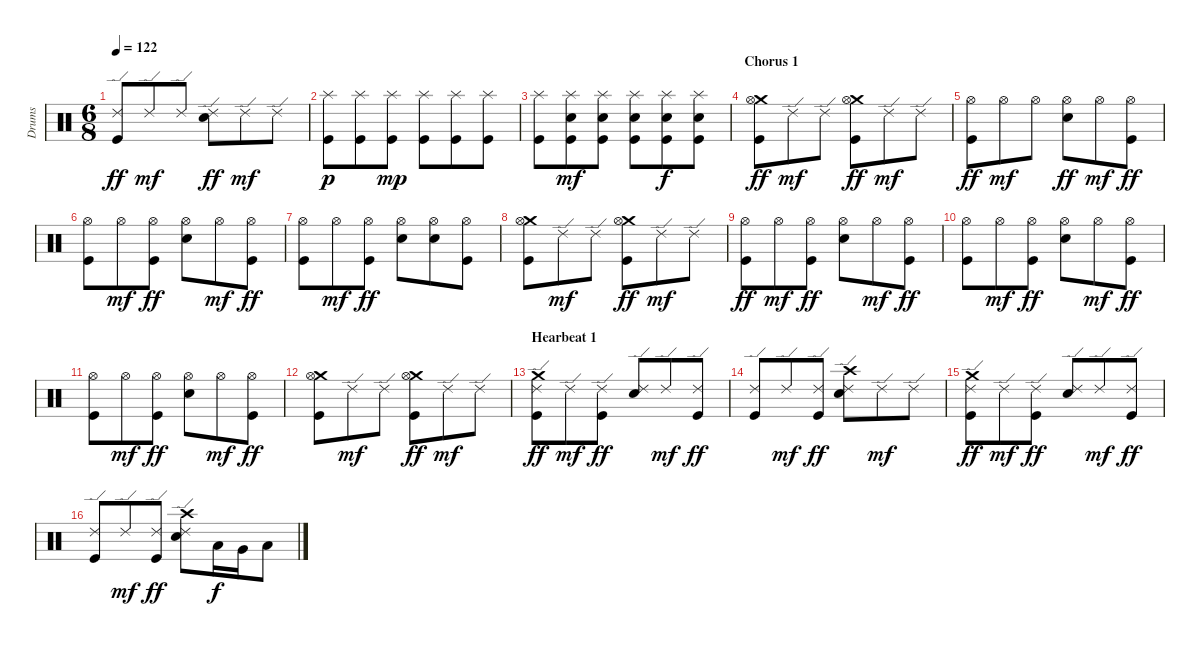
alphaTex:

\track ("Drums" "Drums") {instrument percussion}
\staff {score}
\articulation defaults
\ts (6 8)
\tempo 122
\clef neutral
\ks c
("Ride (edge) 2" "Kick (hit)").8{dy ff} "Ride (edge) 2".8{dy mf} "Ride (edge) 2".8 ("Ride (edge) 2" "Electric Snare (hit)").8{dy ff} "Ride (edge) 2".8{dy mf} "Ride (edge) 2".8 |
("Splash (hit)" "Kick (hit)").8{dy p} ("Splash (hit)" "Kick (hit)").8 ("Splash (hit)" "Kick (hit)").8{dy mp} ("Splash (hit)" "Kick (hit)").8 ("Splash (hit)" "Kick (hit)").8 ("Splash (hit)" "Kick (hit)").8 |
("Splash (hit)" "Kick (hit)").8 ("Splash (hit)" "Electric Snare (hit)" "Kick (hit)").8{dy mf} ("Splash (hit)" "Electric Snare (hit)" "Kick (hit)").8 ("Splash (hit)" "Electric Snare (hit)" "Kick (hit)").8 ("Splash (hit)" "Electric Snare (hit)" "Kick (hit)").8{dy f} ("Splash (hit)" "Electric Snare (hit)" "Kick (hit)").8 |
\section ("" "Chorus 1")
("Crash medium (hit)" "Hi-Hat (open)" "Kick (hit)").8{dy ff} "Ride (edge) 2".8{dy mf} "Ride (edge) 2".8 ("Crash medium (hit)" "Hi-Hat (open)" "Kick (hit)").8{dy ff} "Ride (edge) 2".8{dy mf} "Ride (edge) 2".8 |
("Hi-Hat (open)" "Kick (hit)").8{dy ff} "Hi-Hat (open)".8{dy mf} "Hi-Hat (open)".8 ("Hi-Hat (open)" "Electric Snare (hit)").8{dy ff} "Hi-Hat (open)".8{dy mf} ("Hi-Hat (open)" "Kick (hit)").8{dy ff} |
("Hi-Hat (open)" "Kick (hit)").8 "Hi-Hat (open)".8{dy mf} ("Hi-Hat (open)" "Kick (hit)").8{dy ff} ("Hi-Hat (open)" "Electric Snare (hit)").8 "Hi-Hat (open)".8{dy mf} ("Hi-Hat (open)" "Kick (hit)").8{dy ff} |
("Hi-Hat (open)" "Kick (hit)").8 "Hi-Hat (open)".8{dy mf} ("Hi-Hat (open)" "Kick (hit)").8{dy ff} ("Hi-Hat (open)" "Electric Snare (hit)").8 ("Hi-Hat (open)" "Electric Snare (hit)").8 ("Hi-Hat (open)" "Kick (hit)").8 |
("Crash medium (hit)" "Hi-Hat (open)" "Kick (hit)").8 "Ride (edge) 2".8{dy mf} "Ride (edge) 2".8 ("Crash medium (hit)" "Hi-Hat (open)" "Kick (hit)").8{dy ff} "Ride (edge) 2".8{dy mf} "Ride (edge) 2".8 |
("Hi-Hat (open)" "Kick (hit)").8{dy ff} "Hi-Hat (open)".8{dy mf} ("Hi-Hat (open)" "Kick (hit)").8{dy ff} ("Hi-Hat (open)" "Electric Snare (hit)").8 "Hi-Hat (open)".8{dy mf} ("Hi-Hat (open)" "Kick (hit)").8{dy ff} |
("Hi-Hat (open)" "Kick (hit)").8 "Hi-Hat (open)".8{dy mf} ("Hi-Hat (open)" "Kick (hit)").8{dy ff} ("Hi-Hat (open)" "Electric Snare (hit)").8 "Hi-Hat (open)".8{dy mf} ("Hi-Hat (open)" "Kick (hit)").8{dy ff} |
("Hi-Hat (open)" "Kick (hit)").8 "Hi-Hat (open)".8{dy mf} ("Hi-Hat (open)" "Kick (hit)").8{dy ff} ("Hi-Hat (open)" "Electric Snare (hit)").8 "Hi-Hat (open)".8{dy mf} ("Hi-Hat (open)" "Kick (hit)").8{dy ff} |
("Crash medium (hit)" "Hi-Hat (open)" "Kick (hit)").8 "Ride (edge) 2".8{dy mf} "Ride (edge) 2".8 ("Crash medium (hit)" "Hi-Hat (open)" "Kick (hit)").8{dy ff} "Ride (edge) 2".8{dy mf} "Ride (edge) 2".8 |
\section ("" "Hearbeat 1")
("Ride (edge) 2" "Crash medium (hit)" "Kick (hit)").8{dy ff} "Ride (edge) 2".8{dy mf} ("Ride (edge) 2" "Kick (hit)").8{dy ff} ("Ride (edge) 2" "Electric Snare (hit)").8 "Ride (edge) 2".8{dy mf} ("Ride (edge) 2" "Kick (hit)").8{dy ff} |
("Ride (edge) 2" "Kick (hit)").8 "Ride (edge) 2".8{dy mf} ("Ride (edge) 2" "Kick (hit)").8{dy ff} ("Ride (edge) 2" "Crash high (hit)" "Electric Snare (hit)").8 "Ride (edge) 2".8{dy mf} "Ride (edge) 2".8 |
("Ride (edge) 2" "Crash medium (hit)" "Kick (hit)").8{dy ff} "Ride (edge) 2".8{dy mf} ("Ride (edge) 2" "Kick (hit)").8{dy ff} ("Ride (edge) 2" "Electric Snare (hit)").8 "Ride (edge) 2".8{dy mf} ("Ride (edge) 2" "Kick (hit)").8{dy ff} |
("Ride (edge) 2" "Kick (hit)").8 "Ride (edge) 2".8{dy mf} ("Ride (edge) 2" "Kick (hit)").8{dy ff} ("Ride (edge) 2" "Crash high (hit)" "Electric Snare (hit)").8 "Low Tom (hit)".16{dy f} "Very Low Tom (hit)".16 "Low Floor Tom (hit)".8
